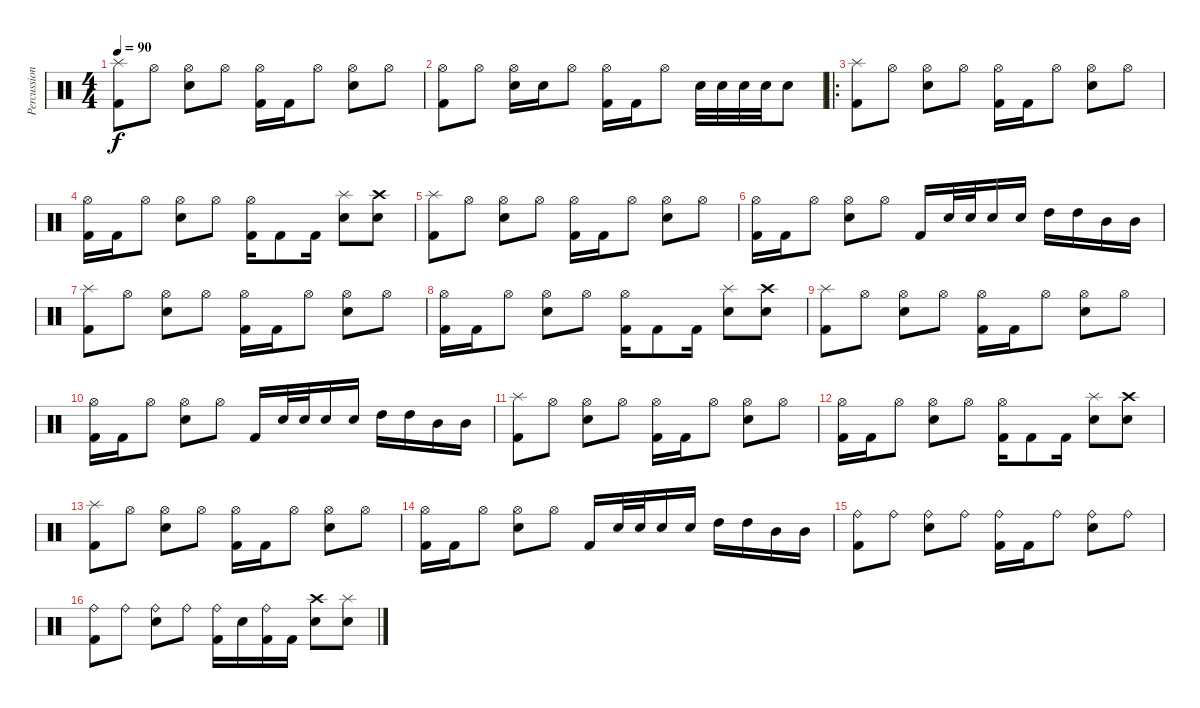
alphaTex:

\track ("Percussions" "Percussion") {instrument percussion}
\staff {score}
\articulation defaults
\ts (4 4)
\tempo 90
\clef neutral
\ks c
("Kick (hit) 2" "Splash (hit)").8{dy f} "Hi-Hat (open)".8 ("Snare (hit) 2" "Hi-Hat (open)").8 "Hi-Hat (open)".8 ("Kick (hit) 2" "Hi-Hat (open)").16 "Kick (hit) 2".16 "Hi-Hat (open)".8 ("Snare (hit) 2" "Hi-Hat (open)").8 "Hi-Hat (open)".8 |
("Kick (hit) 2" "Hi-Hat (open)").8 "Hi-Hat (open)".8 ("Snare (hit) 2" "Hi-Hat (open)").16 "Snare (hit) 2".16 "Hi-Hat (open)".8 ("Kick (hit) 2" "Hi-Hat (open)").16 "Kick (hit) 2".16 "Hi-Hat (open)".8 "Snare (hit) 2".32 "Snare (hit) 2".32 "Snare (hit) 2".32 "Snare (hit) 2".32 "Snare (hit) 2".8 |
\ro
("Kick (hit) 2" "Splash (hit)").8 "Hi-Hat (open)".8 ("Snare (hit) 2" "Hi-Hat (open)").8 "Hi-Hat (open)".8 ("Kick (hit) 2" "Hi-Hat (open)").16 "Kick (hit) 2".16 "Hi-Hat (open)".8 ("Snare (hit) 2" "Hi-Hat (open)").8 "Hi-Hat (open)".8 |
("Kick (hit) 2" "Hi-Hat (open)").16 "Kick (hit) 2".16 "Hi-Hat (open)".8 ("Snare (hit) 2" "Hi-Hat (open)").8 "Hi-Hat (open)".8 ("Kick (hit) 2" "Hi-Hat (open)").16 "Kick (hit) 2".8 "Kick (hit) 2".16 ("Snare (hit) 2" "Splash (hit)").8 ("Snare (hit) 2" "Crash high (hit)").8 |
("Kick (hit) 2" "Splash (hit)").8 "Hi-Hat (open)".8 ("Snare (hit) 2" "Hi-Hat (open)").8 "Hi-Hat (open)".8 ("Kick (hit) 2" "Hi-Hat (open)").16 "Kick (hit) 2".16 "Hi-Hat (open)".8 ("Snare (hit) 2" "Hi-Hat (open)").8 "Hi-Hat (open)".8 |
("Kick (hit) 2" "Hi-Hat (open)").16 "Kick (hit) 2".16 "Hi-Hat (open)".8 ("Snare (hit) 2" "Hi-Hat (open)").8 "Hi-Hat (open)".8 "Kick (hit) 2".16 "Snare (hit) 2".32 "Snare (hit) 2".32 "Snare (hit) 2".16 "Snare (hit) 2".16 "High Tom (hit)".16 "High Tom (hit)".16 "Mid Tom (hit)".16 "Mid Tom (hit)".16 |
("Kick (hit) 2" "Splash (hit)").8 "Hi-Hat (open)".8 ("Snare (hit) 2" "Hi-Hat (open)").8 "Hi-Hat (open)".8 ("Kick (hit) 2" "Hi-Hat (open)").16 "Kick (hit) 2".16 "Hi-Hat (open)".8 ("Snare (hit) 2" "Hi-Hat (open)").8 "Hi-Hat (open)".8 |
("Kick (hit) 2" "Hi-Hat (open)").16 "Kick (hit) 2".16 "Hi-Hat (open)".8 ("Snare (hit) 2" "Hi-Hat (open)").8 "Hi-Hat (open)".8 ("Kick (hit) 2" "Hi-Hat (open)").16 "Kick (hit) 2".8 "Kick (hit) 2".16 ("Snare (hit) 2" "Splash (hit)").8 ("Snare (hit) 2" "Crash high (hit)").8 |
("Kick (hit) 2" "Splash (hit)").8 "Hi-Hat (open)".8 ("Snare (hit) 2" "Hi-Hat (open)").8 "Hi-Hat (open)".8 ("Kick (hit) 2" "Hi-Hat (open)").16 "Kick (hit) 2".16 "Hi-Hat (open)".8 ("Snare (hit) 2" "Hi-Hat (open)").8 "Hi-Hat (open)".8 |
("Kick (hit) 2" "Hi-Hat (open)").16 "Kick (hit) 2".16 "Hi-Hat (open)".8 ("Snare (hit) 2" "Hi-Hat (open)").8 "Hi-Hat (open)".8 "Kick (hit) 2".16 "Snare (hit) 2".32 "Snare (hit) 2".32 "Snare (hit) 2".16 "Snare (hit) 2".16 "High Tom (hit)".16 "High Tom (hit)".16 "Mid Tom (hit)".16 "Mid Tom (hit)".16 |
("Kick (hit) 2" "Splash (hit)").8 "Hi-Hat (open)".8 ("Snare (hit) 2" "Hi-Hat (open)").8 "Hi-Hat (open)".8 ("Kick (hit) 2" "Hi-Hat (open)").16 "Kick (hit) 2".16 "Hi-Hat (open)".8 ("Snare (hit) 2" "Hi-Hat (open)").8 "Hi-Hat (open)".8 |
("Kick (hit) 2" "Hi-Hat (open)").16 "Kick (hit) 2".16 "Hi-Hat (open)".8 ("Snare (hit) 2" "Hi-Hat (open)").8 "Hi-Hat (open)".8 ("Kick (hit) 2" "Hi-Hat (open)").16 "Kick (hit) 2".8 "Kick (hit) 2".16 ("Snare (hit) 2" "Splash (hit)").8 ("Snare (hit) 2" "Crash high (hit)").8 |
("Kick (hit) 2" "Splash (hit)").8 "Hi-Hat (open)".8 ("Snare (hit) 2" "Hi-Hat (open)").8 "Hi-Hat (open)".8 ("Kick (hit) 2" "Hi-Hat (open)").16 "Kick (hit) 2".16 "Hi-Hat (open)".8 ("Snare (hit) 2" "Hi-Hat (open)").8 "Hi-Hat (open)".8 |
("Kick (hit) 2" "Hi-Hat (open)").16 "Kick (hit) 2".16 "Hi-Hat (open)".8 ("Snare (hit) 2" "Hi-Hat (open)").8 "Hi-Hat (open)".8 "Kick (hit) 2".16 "Snare (hit) 2".32 "Snare (hit) 2".32 "Snare (hit) 2".16 "Snare (hit) 2".16 "High Tom (hit)".16 "High Tom (hit)".16 "Mid Tom (hit)".16 "Mid Tom (hit)".16 |
("Kick (hit) 2" "Ride (bell)").8 "Ride (bell)".8 ("Snare (hit) 2" "Ride (bell)").8 "Ride (bell)".8 ("Kick (hit) 2" "Ride (bell)").16 "Kick (hit) 2".16 "Ride (bell)".8 ("Snare (hit) 2" "Ride (bell)").8 "Ride (bell)".8 |
("Kick (hit) 2" "Ride (bell)").8 "Ride (bell)".8 ("Snare (hit) 2" "Ride (bell)").8 "Ride (bell)".8 ("Kick (hit) 2" "Ride (bell)").16 "Snare (hit) 2".16 ("Kick (hit) 2" "Ride (bell)").16 "Kick (hit) 2".16 ("Snare (hit) 2" "Crash high (hit)").8 ("Snare (hit) 2" "Splash (hit)").8
